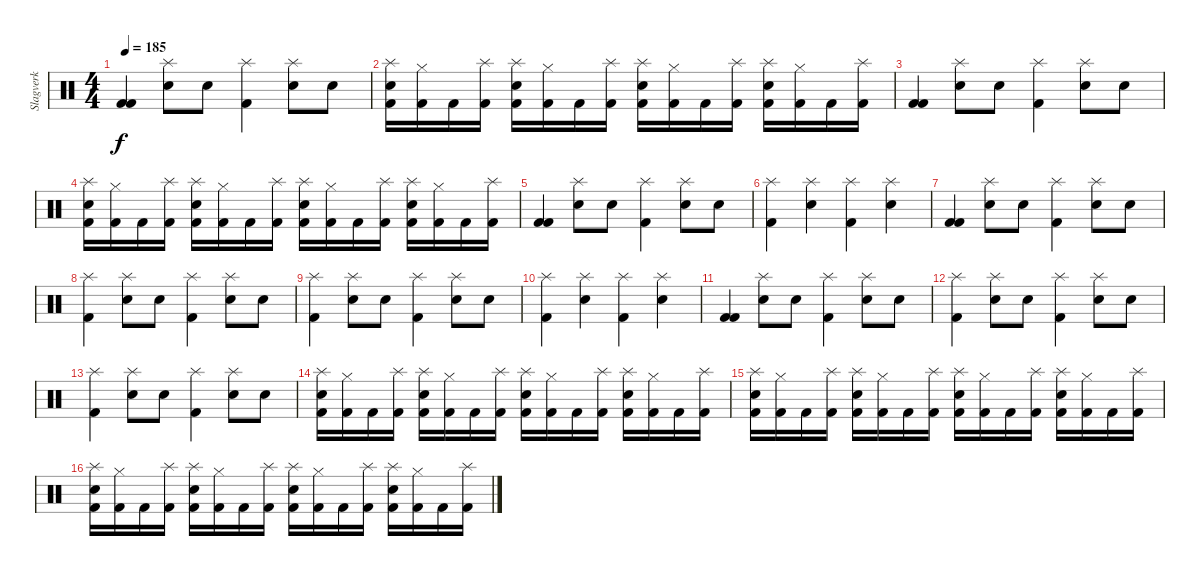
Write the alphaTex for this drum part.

\track ("Slagverk" "Slagverk") {instrument percussion}
\staff {score}
\articulation defaults
\ts (4 4)
\tempo 185
\clef neutral
\ks c
("Kick (hit) 2" "Kick (hit) 2").4{dy f} ("Splash (hit)" "Electric Snare (hit)").8 "Electric Snare (hit)".8 ("Splash (hit)" "Kick (hit) 2").4 ("Splash (hit)" "Electric Snare (hit)").8 "Electric Snare (hit)".8 |
("Kick (hit) 2" "Electric Snare (hit)" "Splash (hit)").16 ("Kick (hit) 2" "Hi-Hat (closed)").16 "Kick (hit) 2".16 ("Kick (hit) 2" "Splash (hit)").16 ("Kick (hit) 2" "Electric Snare (hit)" "Splash (hit)").16 ("Kick (hit) 2" "Hi-Hat (closed)").16 "Kick (hit) 2".16 ("Kick (hit) 2" "Splash (hit)").16 ("Kick (hit) 2" "Electric Snare (hit)" "Splash (hit)").16 ("Kick (hit) 2" "Hi-Hat (closed)").16 "Kick (hit) 2".16 ("Kick (hit) 2" "Splash (hit)").16 ("Kick (hit) 2" "Electric Snare (hit)" "Splash (hit)").16 ("Kick (hit) 2" "Hi-Hat (closed)").16 "Kick (hit) 2".16 ("Kick (hit) 2" "Splash (hit)").16 |
("Kick (hit) 2" "Kick (hit) 2").4 ("Splash (hit)" "Electric Snare (hit)").8 "Electric Snare (hit)".8 ("Splash (hit)" "Kick (hit) 2").4 ("Splash (hit)" "Electric Snare (hit)").8 "Electric Snare (hit)".8 |
("Kick (hit) 2" "Electric Snare (hit)" "Splash (hit)").16 ("Kick (hit) 2" "Hi-Hat (closed)").16 "Kick (hit) 2".16 ("Kick (hit) 2" "Splash (hit)").16 ("Kick (hit) 2" "Electric Snare (hit)" "Splash (hit)").16 ("Kick (hit) 2" "Hi-Hat (closed)").16 "Kick (hit) 2".16 ("Kick (hit) 2" "Splash (hit)").16 ("Kick (hit) 2" "Electric Snare (hit)" "Splash (hit)").16 ("Kick (hit) 2" "Hi-Hat (closed)").16 "Kick (hit) 2".16 ("Kick (hit) 2" "Splash (hit)").16 ("Kick (hit) 2" "Electric Snare (hit)" "Splash (hit)").16 ("Kick (hit) 2" "Hi-Hat (closed)").16 "Kick (hit) 2".16 ("Kick (hit) 2" "Splash (hit)").16 |
("Kick (hit) 2" "Kick (hit) 2").4 ("Splash (hit)" "Electric Snare (hit)").8 "Electric Snare (hit)".8 ("Splash (hit)" "Kick (hit) 2").4 ("Splash (hit)" "Electric Snare (hit)").8 "Electric Snare (hit)".8 |
("Splash (hit)" "Kick (hit) 2").4 ("Splash (hit)" "Electric Snare (hit)").4 ("Splash (hit)" "Kick (hit) 2").4 ("Splash (hit)" "Electric Snare (hit)").4 |
("Kick (hit) 2" "Kick (hit) 2").4 ("Splash (hit)" "Electric Snare (hit)").8 "Electric Snare (hit)".8 ("Splash (hit)" "Kick (hit) 2").4 ("Splash (hit)" "Electric Snare (hit)").8 "Electric Snare (hit)".8 |
("Splash (hit)" "Kick (hit) 2").4 ("Splash (hit)" "Electric Snare (hit)").8 "Electric Snare (hit)".8 ("Splash (hit)" "Kick (hit) 2").4 ("Splash (hit)" "Electric Snare (hit)").8 "Electric Snare (hit)".8 |
("Splash (hit)" "Kick (hit) 2").4 ("Splash (hit)" "Electric Snare (hit)").8 "Electric Snare (hit)".8 ("Splash (hit)" "Kick (hit) 2").4 ("Splash (hit)" "Electric Snare (hit)").8 "Electric Snare (hit)".8 |
("Splash (hit)" "Kick (hit) 2").4 ("Splash (hit)" "Electric Snare (hit)").4 ("Splash (hit)" "Kick (hit) 2").4 ("Splash (hit)" "Electric Snare (hit)").4 |
("Kick (hit) 2" "Kick (hit) 2").4 ("Splash (hit)" "Electric Snare (hit)").8 "Electric Snare (hit)".8 ("Splash (hit)" "Kick (hit) 2").4 ("Splash (hit)" "Electric Snare (hit)").8 "Electric Snare (hit)".8 |
("Splash (hit)" "Kick (hit) 2").4 ("Splash (hit)" "Electric Snare (hit)").8 "Electric Snare (hit)".8 ("Splash (hit)" "Kick (hit) 2").4 ("Splash (hit)" "Electric Snare (hit)").8 "Electric Snare (hit)".8 |
("Splash (hit)" "Kick (hit) 2").4 ("Splash (hit)" "Electric Snare (hit)").8 "Electric Snare (hit)".8 ("Splash (hit)" "Kick (hit) 2").4 ("Splash (hit)" "Electric Snare (hit)").8 "Electric Snare (hit)".8 |
("Kick (hit) 2" "Electric Snare (hit)" "Splash (hit)").16 ("Kick (hit) 2" "Hi-Hat (closed)").16 "Kick (hit) 2".16 ("Kick (hit) 2" "Splash (hit)").16 ("Kick (hit) 2" "Electric Snare (hit)" "Splash (hit)").16 ("Kick (hit) 2" "Hi-Hat (closed)").16 "Kick (hit) 2".16 ("Kick (hit) 2" "Splash (hit)").16 ("Kick (hit) 2" "Electric Snare (hit)" "Splash (hit)").16 ("Kick (hit) 2" "Hi-Hat (closed)").16 "Kick (hit) 2".16 ("Kick (hit) 2" "Splash (hit)").16 ("Kick (hit) 2" "Electric Snare (hit)" "Splash (hit)").16 ("Kick (hit) 2" "Hi-Hat (closed)").16 "Kick (hit) 2".16 ("Kick (hit) 2" "Splash (hit)").16 |
("Kick (hit) 2" "Electric Snare (hit)" "Splash (hit)").16 ("Kick (hit) 2" "Hi-Hat (closed)").16 "Kick (hit) 2".16 ("Kick (hit) 2" "Splash (hit)").16 ("Kick (hit) 2" "Electric Snare (hit)" "Splash (hit)").16 ("Kick (hit) 2" "Hi-Hat (closed)").16 "Kick (hit) 2".16 ("Kick (hit) 2" "Splash (hit)").16 ("Kick (hit) 2" "Electric Snare (hit)" "Splash (hit)").16 ("Kick (hit) 2" "Hi-Hat (closed)").16 "Kick (hit) 2".16 ("Kick (hit) 2" "Splash (hit)").16 ("Kick (hit) 2" "Electric Snare (hit)" "Splash (hit)").16 ("Kick (hit) 2" "Hi-Hat (closed)").16 "Kick (hit) 2".16 ("Kick (hit) 2" "Splash (hit)").16 |
("Kick (hit) 2" "Electric Snare (hit)" "Splash (hit)").16 ("Kick (hit) 2" "Hi-Hat (closed)").16 "Kick (hit) 2".16 ("Kick (hit) 2" "Splash (hit)").16 ("Kick (hit) 2" "Electric Snare (hit)" "Splash (hit)").16 ("Kick (hit) 2" "Hi-Hat (closed)").16 "Kick (hit) 2".16 ("Kick (hit) 2" "Splash (hit)").16 ("Kick (hit) 2" "Electric Snare (hit)" "Splash (hit)").16 ("Kick (hit) 2" "Hi-Hat (closed)").16 "Kick (hit) 2".16 ("Kick (hit) 2" "Splash (hit)").16 ("Kick (hit) 2" "Electric Snare (hit)" "Splash (hit)").16 ("Kick (hit) 2" "Hi-Hat (closed)").16 "Kick (hit) 2".16 ("Kick (hit) 2" "Splash (hit)").16
